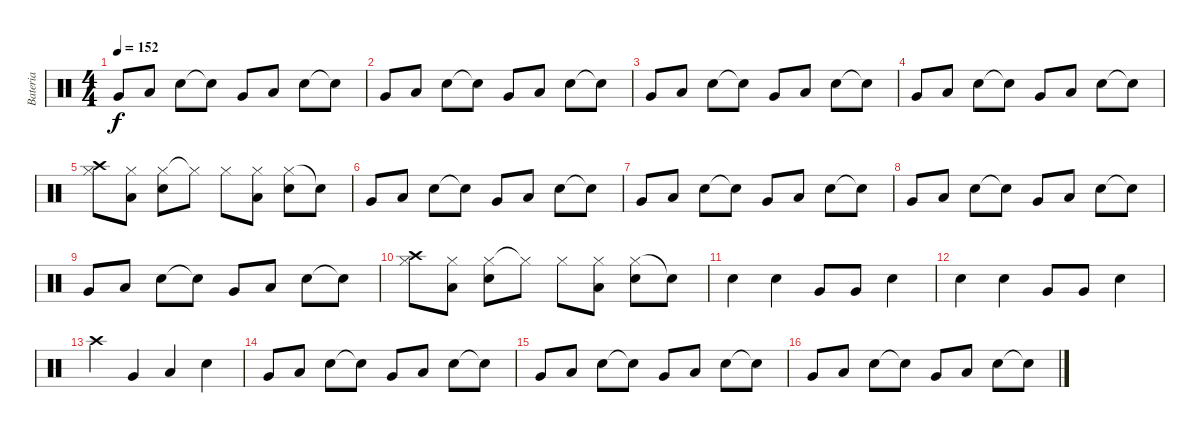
\track ("Bateria" "Bateria") {instrument percussion}
\staff {score}
\articulation defaults
\ts (4 4)
\tempo 152
\clef neutral
\ks c "Very Low Tom (hit)".8{dy f} "Low Floor Tom (hit)".8 "Snare (hit) 2".8 "Snare (hit)"{t}.8 "Very Low Tom (hit)".8 "Low Floor Tom (hit)".8 "Snare (hit) 2".8 "Snare (hit)"{t}.8
|
"Very Low Tom (hit)".8 "Low Floor Tom (hit)".8 "Snare (hit) 2".8 "Snare (hit)"{t}.8 "Very Low Tom (hit)".8 "Low Floor Tom (hit)".8 "Snare (hit) 2".8 "Snare (hit)"{t}.8 |
"Very Low Tom (hit)".8 "Low Floor Tom (hit)".8 "Snare (hit) 2".8 "Snare (hit)"{t}.8 "Very Low Tom (hit)".8 "Low Floor Tom (hit)".8 "Snare (hit) 2".8 "Snare (hit)"{t}.8 |
"Very Low Tom (hit)".8 "Low Floor Tom (hit)".8 "Snare (hit) 2".8 "Snare (hit)"{t}.8 "Very Low Tom (hit)".8 "Low Floor Tom (hit)".8 "Snare (hit) 2".8 "Snare (hit)"{t}.8 |
("Hi-Hat (closed)" "Crash high (hit)").8 ("Low Floor Tom (hit)" "Hi-Hat (closed)").8 ("Hi-Hat (closed)" "Snare (hit) 2").8 "Hi-Hat (closed)"{t}.8 "Hi-Hat (closed)".8 ("Low Floor Tom (hit)" "Hi-Hat (closed)").8 ("Hi-Hat (closed)" "Snare (hit) 2").8 "Snare (hit)"{t}.8 |
"Very Low Tom (hit)".8 "Low Floor Tom (hit)".8 "Snare (hit) 2".8 "Snare (hit)"{t}.8 "Very Low Tom (hit)".8 "Low Floor Tom (hit)".8 "Snare (hit) 2".8 "Snare (hit)"{t}.8 |
"Very Low Tom (hit)".8 "Low Floor Tom (hit)".8 "Snare (hit) 2".8 "Snare (hit)"{t}.8 "Very Low Tom (hit)".8 "Low Floor Tom (hit)".8 "Snare (hit) 2".8 "Snare (hit)"{t}.8 |
"Very Low Tom (hit)".8 "Low Floor Tom (hit)".8 "Snare (hit) 2".8 "Snare (hit)"{t}.8 "Very Low Tom (hit)".8 "Low Floor Tom (hit)".8 "Snare (hit) 2".8 "Snare (hit)"{t}.8 |
"Very Low Tom (hit)".8 "Low Floor Tom (hit)".8 "Snare (hit) 2".8 "Snare (hit)"{t}.8 "Very Low Tom (hit)".8 "Low Floor Tom (hit)".8 "Snare (hit) 2".8 "Snare (hit)"{t}.8 |
("Hi-Hat (closed)" "Crash high (hit)").8 ("Low Floor Tom (hit)" "Hi-Hat (closed)").8 ("Hi-Hat (closed)" "Snare (hit) 2").8 "Hi-Hat (closed)"{t}.8 "Hi-Hat (closed)".8 ("Low Floor Tom (hit)" "Hi-Hat (closed)").8 ("Hi-Hat (closed)" "Snare (hit) 2").8 "Snare (hit)"{t}.8 |
"Snare (hit) 2".4 "Electric Snare (hit)".4 "Very Low Tom (hit)".8 "Very Low Tom (hit)".8 "Electric Snare (hit)".4 |
"Snare (hit) 2".4 "Electric Snare (hit)".4 "Very Low Tom (hit)".8 "Very Low Tom (hit)".8 "Electric Snare (hit)".4 |
"Crash high (hit)".4 "Very Low Tom (hit)".4 "Low Floor Tom (hit)".4 "Snare (hit) 2".4 |
"Very Low Tom (hit)".8 "Low Floor Tom (hit)".8 "Snare (hit) 2".8 "Snare (hit)"{t}.8 "Very Low Tom (hit)".8 "Low Floor Tom (hit)".8 "Snare (hit) 2".8 "Snare (hit)"{t}.8 |
"Very Low Tom (hit)".8 "Low Floor Tom (hit)".8 "Snare (hit) 2".8 "Snare (hit)"{t}.8 "Very Low Tom (hit)".8 "Low Floor Tom (hit)".8 "Snare (hit) 2".8 "Snare (hit)"{t}.8 |
"Very Low Tom (hit)".8 "Low Floor Tom (hit)".8 "Snare (hit) 2".8 "Snare (hit)"{t}.8 "Very Low Tom (hit)".8 "Low Floor Tom (hit)".8 "Snare (hit) 2".8 "Snare (hit)"{t}.8
